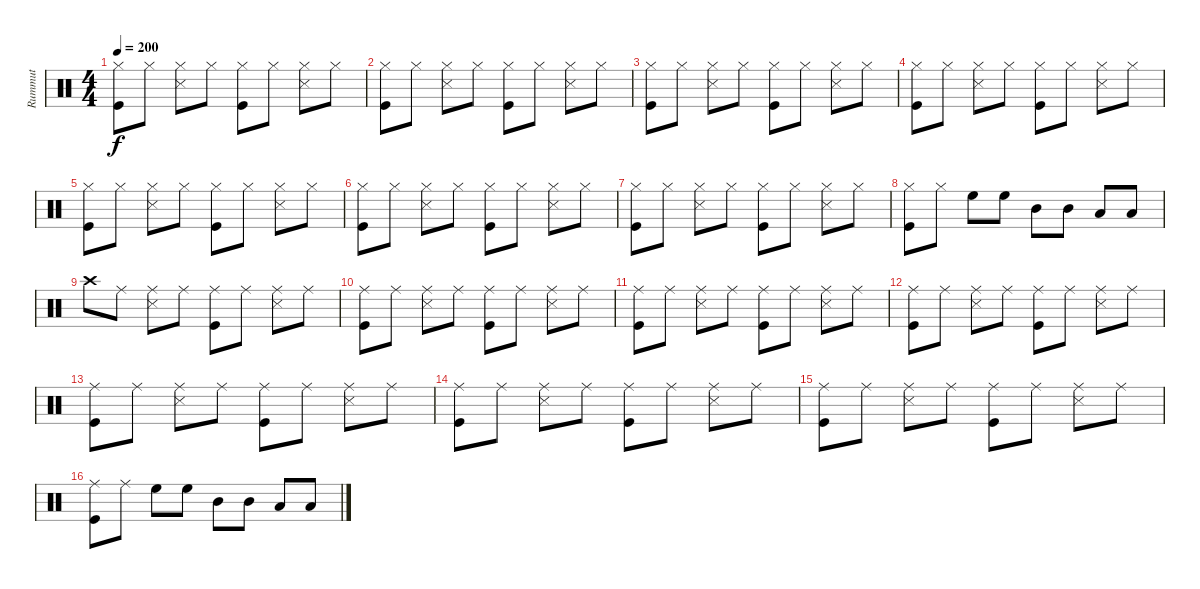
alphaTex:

\track ("Rummut" "Rummut") {instrument percussion}
\staff {score}
\articulation defaults
\ts (4 4)
\tempo 200
\clef neutral
\ks c
("Hi-Hat (closed)" "Kick (hit)").8{dy f} "Hi-Hat (closed)".8 ("Hi-Hat (closed)" "Snare (side stick) 3").8 "Hi-Hat (closed)".8 ("Hi-Hat (closed)" "Kick (hit)").8 "Hi-Hat (closed)".8 ("Hi-Hat (closed)" "Snare (side stick) 3").8 "Hi-Hat (closed)".8 |
("Hi-Hat (closed)" "Kick (hit)").8 "Hi-Hat (closed)".8 ("Hi-Hat (closed)" "Snare (side stick) 3").8 "Hi-Hat (closed)".8 ("Hi-Hat (closed)" "Kick (hit)").8 "Hi-Hat (closed)".8 ("Hi-Hat (closed)" "Snare (side stick) 3").8 "Hi-Hat (closed)".8 |
("Hi-Hat (closed)" "Kick (hit)").8 "Hi-Hat (closed)".8 ("Hi-Hat (closed)" "Snare (side stick) 3").8 "Hi-Hat (closed)".8 ("Hi-Hat (closed)" "Kick (hit)").8 "Hi-Hat (closed)".8 ("Hi-Hat (closed)" "Snare (side stick) 3").8 "Hi-Hat (closed)".8 |
("Hi-Hat (closed)" "Kick (hit)").8 "Hi-Hat (closed)".8 ("Hi-Hat (closed)" "Snare (side stick) 3").8 "Hi-Hat (closed)".8 ("Hi-Hat (closed)" "Kick (hit)").8 "Hi-Hat (closed)".8 ("Hi-Hat (closed)" "Snare (side stick) 3").8 "Hi-Hat (closed)".8 |
("Hi-Hat (closed)" "Kick (hit)").8 "Hi-Hat (closed)".8 ("Hi-Hat (closed)" "Snare (side stick) 3").8 "Hi-Hat (closed)".8 ("Hi-Hat (closed)" "Kick (hit)").8 "Hi-Hat (closed)".8 ("Hi-Hat (closed)" "Snare (side stick) 3").8 "Hi-Hat (closed)".8 |
("Hi-Hat (closed)" "Kick (hit)").8 "Hi-Hat (closed)".8 ("Hi-Hat (closed)" "Snare (side stick) 3").8 "Hi-Hat (closed)".8 ("Hi-Hat (closed)" "Kick (hit)").8 "Hi-Hat (closed)".8 ("Hi-Hat (closed)" "Snare (side stick) 3").8 "Hi-Hat (closed)".8 |
("Hi-Hat (closed)" "Kick (hit)").8 "Hi-Hat (closed)".8 ("Hi-Hat (closed)" "Snare (side stick) 3").8 "Hi-Hat (closed)".8 ("Hi-Hat (closed)" "Kick (hit)").8 "Hi-Hat (closed)".8 ("Hi-Hat (closed)" "Snare (side stick) 3").8 "Hi-Hat (closed)".8 |
("Hi-Hat (closed)" "Kick (hit)").8 "Hi-Hat (closed)".8 "High Floor Tom (hit)".8 "High Floor Tom (hit)".8 "Mid Tom (hit)".8 "Mid Tom (hit)".8 "Low Tom (hit)".8 "Low Tom (hit)".8 |
"Crash high (hit)".8 "Ride (middle)".8 ("Ride (middle)" "Snare (side stick) 3").8 "Ride (middle)".8 ("Ride (middle)" "Kick (hit)").8 "Ride (middle)".8 ("Ride (middle)" "Snare (side stick) 3").8 "Ride (middle)".8 |
("Ride (middle)" "Kick (hit)").8 "Ride (middle)".8 ("Ride (middle)" "Snare (side stick) 3").8 "Ride (middle)".8 ("Ride (middle)" "Kick (hit)").8 "Ride (middle)".8 ("Ride (middle)" "Snare (side stick) 3").8 "Ride (middle)".8 |
("Ride (middle)" "Kick (hit)").8 "Ride (middle)".8 ("Ride (middle)" "Snare (side stick) 3").8 "Ride (middle)".8 ("Ride (middle)" "Kick (hit)").8 "Ride (middle)".8 ("Ride (middle)" "Snare (side stick) 3").8 "Ride (middle)".8 |
("Ride (middle)" "Kick (hit)").8 "Ride (middle)".8 ("Ride (middle)" "Snare (side stick) 3").8 "Ride (middle)".8 ("Ride (middle)" "Kick (hit)").8 "Ride (middle)".8 ("Ride (middle)" "Snare (side stick) 3").8 "Ride (middle)".8 |
("Ride (middle)" "Kick (hit)").8 "Ride (middle)".8 ("Ride (middle)" "Snare (side stick) 3").8 "Ride (middle)".8 ("Ride (middle)" "Kick (hit)").8 "Ride (middle)".8 ("Ride (middle)" "Snare (side stick) 3").8 "Ride (middle)".8 |
("Ride (middle)" "Kick (hit)").8 "Ride (middle)".8 ("Ride (middle)" "Snare (side stick) 3").8 "Ride (middle)".8 ("Ride (middle)" "Kick (hit)").8 "Ride (middle)".8 ("Ride (middle)" "Snare (side stick) 3").8 "Ride (middle)".8 |
("Ride (middle)" "Kick (hit)").8 "Ride (middle)".8 ("Ride (middle)" "Snare (side stick) 3").8 "Ride (middle)".8 ("Ride (middle)" "Kick (hit)").8 "Ride (middle)".8 ("Ride (middle)" "Snare (side stick) 3").8 "Ride (middle)".8 |
("Ride (middle)" "Kick (hit)").8 "Ride (middle)".8 "High Floor Tom (hit)".8 "High Floor Tom (hit)".8 "Mid Tom (hit)".8 "Mid Tom (hit)".8 "Low Tom (hit)".8 "Low Tom (hit)".8
